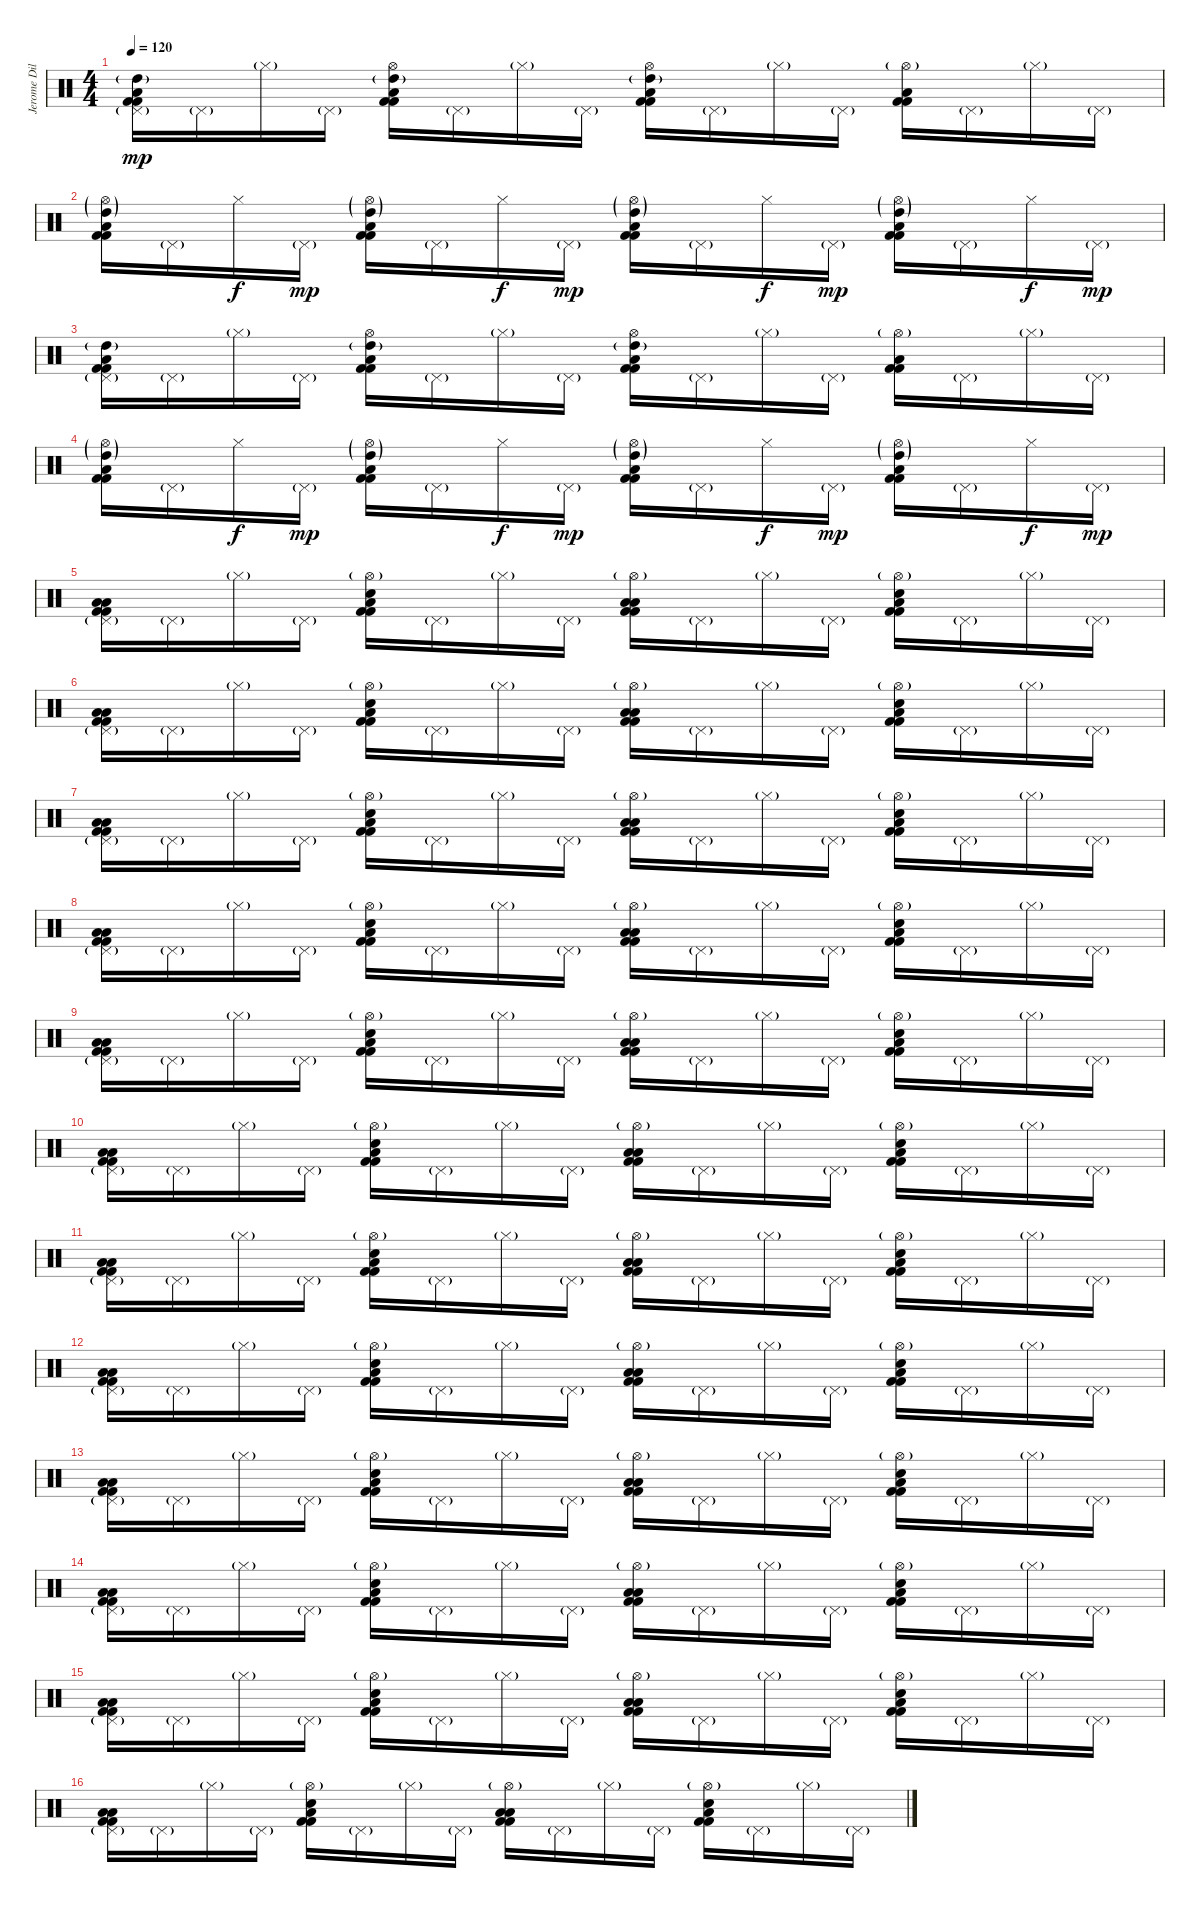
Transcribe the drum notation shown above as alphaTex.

\track ("Jerome Dillon" "Jerome Dil") {instrument percussion}
\staff {score}
\articulation defaults
\ts (4 4)
\tempo 120
\clef neutral
\ks c
("Pedal Hi-Hat (hit)"{g} "High Tom (hit)"{g} "Low Tom (hit)" "Kick (hit) 2" "Kick (hit) 2").16{dy mp} "Pedal Hi-Hat (hit)"{g}.16 "Hi-Hat (closed)"{g}.16 "Pedal Hi-Hat (hit)"{g}.16 ("Hi-Hat (open)" "High Tom (hit)"{g} "Low Tom (hit)" "Kick (hit) 2" "Kick (hit) 2").16 "Pedal Hi-Hat (hit)"{g}.16 "Hi-Hat (closed)"{g}.16 "Pedal Hi-Hat (hit)"{g}.16 ("Hi-Hat (open)" "High Tom (hit)"{g} "Low Tom (hit)" "Kick (hit) 2" "Kick (hit) 2").16 "Pedal Hi-Hat (hit)"{g}.16 "Hi-Hat (closed)"{g}.16 "Pedal Hi-Hat (hit)"{g}.16 ("Hi-Hat (open)"{g} "Low Tom (hit)" "Kick (hit) 2" "Kick (hit) 2").16 "Pedal Hi-Hat (hit)"{g}.16 "Hi-Hat (closed)"{g}.16 "Pedal Hi-Hat (hit)"{g}.16 |
("Hi-Hat (open)"{g} "High Tom (hit)"{g} "Low Tom (hit)" "Kick (hit) 2" "Kick (hit) 2").16 "Pedal Hi-Hat (hit)"{g}.16 "Hi-Hat (closed)".16{dy f} "Pedal Hi-Hat (hit)"{g}.16{dy mp} ("Hi-Hat (open)"{g} "High Tom (hit)"{g} "Low Tom (hit)" "Kick (hit) 2" "Kick (hit) 2").16 "Pedal Hi-Hat (hit)"{g}.16 "Hi-Hat (closed)".16{dy f} "Pedal Hi-Hat (hit)"{g}.16{dy mp} ("Hi-Hat (open)"{g} "High Tom (hit)"{g} "Low Tom (hit)" "Kick (hit) 2" "Kick (hit) 2").16 "Pedal Hi-Hat (hit)"{g}.16 "Hi-Hat (closed)".16{dy f} "Pedal Hi-Hat (hit)"{g}.16{dy mp} ("Hi-Hat (open)"{g} "High Tom (hit)"{g} "Low Tom (hit)" "Kick (hit) 2" "Kick (hit) 2").16 "Pedal Hi-Hat (hit)"{g}.16 "Hi-Hat (closed)".16{dy f} "Pedal Hi-Hat (hit)"{g}.16{dy mp} |
("Pedal Hi-Hat (hit)"{g} "High Tom (hit)"{g} "Low Tom (hit)" "Kick (hit) 2" "Kick (hit) 2").16 "Pedal Hi-Hat (hit)"{g}.16 "Hi-Hat (closed)"{g}.16 "Pedal Hi-Hat (hit)"{g}.16 ("Hi-Hat (open)" "High Tom (hit)"{g} "Low Tom (hit)" "Kick (hit) 2" "Kick (hit) 2").16 "Pedal Hi-Hat (hit)"{g}.16 "Hi-Hat (closed)"{g}.16 "Pedal Hi-Hat (hit)"{g}.16 ("Hi-Hat (open)" "High Tom (hit)"{g} "Low Tom (hit)" "Kick (hit) 2" "Kick (hit) 2").16 "Pedal Hi-Hat (hit)"{g}.16 "Hi-Hat (closed)"{g}.16 "Pedal Hi-Hat (hit)"{g}.16 ("Hi-Hat (open)"{g} "Low Tom (hit)" "Kick (hit) 2" "Kick (hit) 2").16 "Pedal Hi-Hat (hit)"{g}.16 "Hi-Hat (closed)"{g}.16 "Pedal Hi-Hat (hit)"{g}.16 |
("Hi-Hat (open)"{g} "High Tom (hit)"{g} "Low Tom (hit)" "Kick (hit) 2" "Kick (hit) 2").16 "Pedal Hi-Hat (hit)"{g}.16 "Hi-Hat (closed)".16{dy f} "Pedal Hi-Hat (hit)"{g}.16{dy mp} ("Hi-Hat (open)"{g} "High Tom (hit)"{g} "Low Tom (hit)" "Kick (hit) 2" "Kick (hit) 2").16 "Pedal Hi-Hat (hit)"{g}.16 "Hi-Hat (closed)".16{dy f} "Pedal Hi-Hat (hit)"{g}.16{dy mp} ("Hi-Hat (open)"{g} "High Tom (hit)"{g} "Low Tom (hit)" "Kick (hit) 2" "Kick (hit) 2").16 "Pedal Hi-Hat (hit)"{g}.16 "Hi-Hat (closed)".16{dy f} "Pedal Hi-Hat (hit)"{g}.16{dy mp} ("Hi-Hat (open)"{g} "High Tom (hit)"{g} "Low Tom (hit)" "Kick (hit) 2" "Kick (hit) 2").16 "Pedal Hi-Hat (hit)"{g}.16 "Hi-Hat (closed)".16{dy f} "Pedal Hi-Hat (hit)"{g}.16{dy mp} |
("Pedal Hi-Hat (hit)"{g} "Low Floor Tom (hit)" "Low Tom (hit)" "Kick (hit) 2" "Kick (hit) 2").16 "Pedal Hi-Hat (hit)"{g}.16 "Hi-Hat (closed)"{g}.16 "Pedal Hi-Hat (hit)"{g}.16 ("Hi-Hat (open)"{g} "Snare (hit) 2" "Low Tom (hit)" "Kick (hit) 2" "Kick (hit) 2").16 "Pedal Hi-Hat (hit)"{g}.16 "Hi-Hat (closed)"{g}.16 "Pedal Hi-Hat (hit)"{g}.16 ("Hi-Hat (open)"{g} "Low Floor Tom (hit)" "Low Tom (hit)" "Kick (hit) 2" "Kick (hit) 2").16 "Pedal Hi-Hat (hit)"{g}.16 "Hi-Hat (closed)"{g}.16 "Pedal Hi-Hat (hit)"{g}.16 ("Hi-Hat (open)"{g} "Snare (hit) 2" "Low Tom (hit)" "Kick (hit) 2" "Kick (hit) 2").16 "Pedal Hi-Hat (hit)"{g}.16 "Hi-Hat (closed)"{g}.16 "Pedal Hi-Hat (hit)"{g}.16 |
("Pedal Hi-Hat (hit)"{g} "Low Floor Tom (hit)" "Low Tom (hit)" "Kick (hit) 2" "Kick (hit) 2").16 "Pedal Hi-Hat (hit)"{g}.16 "Hi-Hat (closed)"{g}.16 "Pedal Hi-Hat (hit)"{g}.16 ("Hi-Hat (open)"{g} "Snare (hit) 2" "Low Tom (hit)" "Kick (hit) 2" "Kick (hit) 2").16 "Pedal Hi-Hat (hit)"{g}.16 "Hi-Hat (closed)"{g}.16 "Pedal Hi-Hat (hit)"{g}.16 ("Hi-Hat (open)"{g} "Low Floor Tom (hit)" "Low Tom (hit)" "Kick (hit) 2" "Kick (hit) 2").16 "Pedal Hi-Hat (hit)"{g}.16 "Hi-Hat (closed)"{g}.16 "Pedal Hi-Hat (hit)"{g}.16 ("Hi-Hat (open)"{g} "Snare (hit) 2" "Low Tom (hit)" "Kick (hit) 2" "Kick (hit) 2").16 "Pedal Hi-Hat (hit)"{g}.16 "Hi-Hat (closed)"{g}.16 "Pedal Hi-Hat (hit)"{g}.16 |
("Pedal Hi-Hat (hit)"{g} "Low Floor Tom (hit)" "Low Tom (hit)" "Kick (hit) 2" "Kick (hit) 2").16 "Pedal Hi-Hat (hit)"{g}.16 "Hi-Hat (closed)"{g}.16 "Pedal Hi-Hat (hit)"{g}.16 ("Hi-Hat (open)"{g} "Snare (hit) 2" "Low Tom (hit)" "Kick (hit) 2" "Kick (hit) 2").16 "Pedal Hi-Hat (hit)"{g}.16 "Hi-Hat (closed)"{g}.16 "Pedal Hi-Hat (hit)"{g}.16 ("Hi-Hat (open)"{g} "Low Floor Tom (hit)" "Low Tom (hit)" "Kick (hit) 2" "Kick (hit) 2").16 "Pedal Hi-Hat (hit)"{g}.16 "Hi-Hat (closed)"{g}.16 "Pedal Hi-Hat (hit)"{g}.16 ("Hi-Hat (open)"{g} "Snare (hit) 2" "Low Tom (hit)" "Kick (hit) 2" "Kick (hit) 2").16 "Pedal Hi-Hat (hit)"{g}.16 "Hi-Hat (closed)"{g}.16 "Pedal Hi-Hat (hit)"{g}.16 |
("Pedal Hi-Hat (hit)"{g} "Low Floor Tom (hit)" "Low Tom (hit)" "Kick (hit) 2" "Kick (hit) 2").16 "Pedal Hi-Hat (hit)"{g}.16 "Hi-Hat (closed)"{g}.16 "Pedal Hi-Hat (hit)"{g}.16 ("Hi-Hat (open)"{g} "Snare (hit) 2" "Low Tom (hit)" "Kick (hit) 2" "Kick (hit) 2").16 "Pedal Hi-Hat (hit)"{g}.16 "Hi-Hat (closed)"{g}.16 "Pedal Hi-Hat (hit)"{g}.16 ("Hi-Hat (open)"{g} "Low Floor Tom (hit)" "Low Tom (hit)" "Kick (hit) 2" "Kick (hit) 2").16 "Pedal Hi-Hat (hit)"{g}.16 "Hi-Hat (closed)"{g}.16 "Pedal Hi-Hat (hit)"{g}.16 ("Hi-Hat (open)"{g} "Snare (hit) 2" "Low Tom (hit)" "Kick (hit) 2" "Kick (hit) 2").16 "Pedal Hi-Hat (hit)"{g}.16 "Hi-Hat (closed)"{g}.16 "Pedal Hi-Hat (hit)"{g}.16 |
("Pedal Hi-Hat (hit)"{g} "Low Floor Tom (hit)" "Low Tom (hit)" "Kick (hit) 2" "Kick (hit) 2").16 "Pedal Hi-Hat (hit)"{g}.16 "Hi-Hat (closed)"{g}.16 "Pedal Hi-Hat (hit)"{g}.16 ("Hi-Hat (open)"{g} "Snare (hit) 2" "Low Tom (hit)" "Kick (hit) 2" "Kick (hit) 2").16 "Pedal Hi-Hat (hit)"{g}.16 "Hi-Hat (closed)"{g}.16 "Pedal Hi-Hat (hit)"{g}.16 ("Hi-Hat (open)"{g} "Low Floor Tom (hit)" "Low Tom (hit)" "Kick (hit) 2" "Kick (hit) 2").16 "Pedal Hi-Hat (hit)"{g}.16 "Hi-Hat (closed)"{g}.16 "Pedal Hi-Hat (hit)"{g}.16 ("Hi-Hat (open)"{g} "Snare (hit) 2" "Low Tom (hit)" "Kick (hit) 2" "Kick (hit) 2").16 "Pedal Hi-Hat (hit)"{g}.16 "Hi-Hat (closed)"{g}.16 "Pedal Hi-Hat (hit)"{g}.16 |
("Pedal Hi-Hat (hit)"{g} "Low Floor Tom (hit)" "Low Tom (hit)" "Kick (hit) 2" "Kick (hit) 2").16 "Pedal Hi-Hat (hit)"{g}.16 "Hi-Hat (closed)"{g}.16 "Pedal Hi-Hat (hit)"{g}.16 ("Hi-Hat (open)"{g} "Snare (hit) 2" "Low Tom (hit)" "Kick (hit) 2" "Kick (hit) 2").16 "Pedal Hi-Hat (hit)"{g}.16 "Hi-Hat (closed)"{g}.16 "Pedal Hi-Hat (hit)"{g}.16 ("Hi-Hat (open)"{g} "Low Floor Tom (hit)" "Low Tom (hit)" "Kick (hit) 2" "Kick (hit) 2").16 "Pedal Hi-Hat (hit)"{g}.16 "Hi-Hat (closed)"{g}.16 "Pedal Hi-Hat (hit)"{g}.16 ("Hi-Hat (open)"{g} "Snare (hit) 2" "Low Tom (hit)" "Kick (hit) 2" "Kick (hit) 2").16 "Pedal Hi-Hat (hit)"{g}.16 "Hi-Hat (closed)"{g}.16 "Pedal Hi-Hat (hit)"{g}.16 |
("Pedal Hi-Hat (hit)"{g} "Low Floor Tom (hit)" "Low Tom (hit)" "Kick (hit) 2" "Kick (hit) 2").16 "Pedal Hi-Hat (hit)"{g}.16 "Hi-Hat (closed)"{g}.16 "Pedal Hi-Hat (hit)"{g}.16 ("Hi-Hat (open)"{g} "Snare (hit) 2" "Low Tom (hit)" "Kick (hit) 2" "Kick (hit) 2").16 "Pedal Hi-Hat (hit)"{g}.16 "Hi-Hat (closed)"{g}.16 "Pedal Hi-Hat (hit)"{g}.16 ("Hi-Hat (open)"{g} "Low Floor Tom (hit)" "Low Tom (hit)" "Kick (hit) 2" "Kick (hit) 2").16 "Pedal Hi-Hat (hit)"{g}.16 "Hi-Hat (closed)"{g}.16 "Pedal Hi-Hat (hit)"{g}.16 ("Hi-Hat (open)"{g} "Snare (hit) 2" "Low Tom (hit)" "Kick (hit) 2" "Kick (hit) 2").16 "Pedal Hi-Hat (hit)"{g}.16 "Hi-Hat (closed)"{g}.16 "Pedal Hi-Hat (hit)"{g}.16 |
("Pedal Hi-Hat (hit)"{g} "Low Floor Tom (hit)" "Low Tom (hit)" "Kick (hit) 2" "Kick (hit) 2").16 "Pedal Hi-Hat (hit)"{g}.16 "Hi-Hat (closed)"{g}.16 "Pedal Hi-Hat (hit)"{g}.16 ("Hi-Hat (open)"{g} "Snare (hit) 2" "Low Tom (hit)" "Kick (hit) 2" "Kick (hit) 2").16 "Pedal Hi-Hat (hit)"{g}.16 "Hi-Hat (closed)"{g}.16 "Pedal Hi-Hat (hit)"{g}.16 ("Hi-Hat (open)"{g} "Low Floor Tom (hit)" "Low Tom (hit)" "Kick (hit) 2" "Kick (hit) 2").16 "Pedal Hi-Hat (hit)"{g}.16 "Hi-Hat (closed)"{g}.16 "Pedal Hi-Hat (hit)"{g}.16 ("Hi-Hat (open)"{g} "Snare (hit) 2" "Low Tom (hit)" "Kick (hit) 2" "Kick (hit) 2").16 "Pedal Hi-Hat (hit)"{g}.16 "Hi-Hat (closed)"{g}.16 "Pedal Hi-Hat (hit)"{g}.16 |
("Pedal Hi-Hat (hit)"{g} "Low Floor Tom (hit)" "Low Tom (hit)" "Kick (hit) 2" "Kick (hit) 2").16 "Pedal Hi-Hat (hit)"{g}.16 "Hi-Hat (closed)"{g}.16 "Pedal Hi-Hat (hit)"{g}.16 ("Hi-Hat (open)"{g} "Snare (hit) 2" "Low Tom (hit)" "Kick (hit) 2" "Kick (hit) 2").16 "Pedal Hi-Hat (hit)"{g}.16 "Hi-Hat (closed)"{g}.16 "Pedal Hi-Hat (hit)"{g}.16 ("Hi-Hat (open)"{g} "Low Floor Tom (hit)" "Low Tom (hit)" "Kick (hit) 2" "Kick (hit) 2").16 "Pedal Hi-Hat (hit)"{g}.16 "Hi-Hat (closed)"{g}.16 "Pedal Hi-Hat (hit)"{g}.16 ("Hi-Hat (open)"{g} "Snare (hit) 2" "Low Tom (hit)" "Kick (hit) 2" "Kick (hit) 2").16 "Pedal Hi-Hat (hit)"{g}.16 "Hi-Hat (closed)"{g}.16 "Pedal Hi-Hat (hit)"{g}.16 |
("Pedal Hi-Hat (hit)"{g} "Low Floor Tom (hit)" "Low Tom (hit)" "Kick (hit) 2" "Kick (hit) 2").16 "Pedal Hi-Hat (hit)"{g}.16 "Hi-Hat (closed)"{g}.16 "Pedal Hi-Hat (hit)"{g}.16 ("Hi-Hat (open)"{g} "Snare (hit) 2" "Low Tom (hit)" "Kick (hit) 2" "Kick (hit) 2").16 "Pedal Hi-Hat (hit)"{g}.16 "Hi-Hat (closed)"{g}.16 "Pedal Hi-Hat (hit)"{g}.16 ("Hi-Hat (open)"{g} "Low Floor Tom (hit)" "Low Tom (hit)" "Kick (hit) 2" "Kick (hit) 2").16 "Pedal Hi-Hat (hit)"{g}.16 "Hi-Hat (closed)"{g}.16 "Pedal Hi-Hat (hit)"{g}.16 ("Hi-Hat (open)"{g} "Snare (hit) 2" "Low Tom (hit)" "Kick (hit) 2" "Kick (hit) 2").16 "Pedal Hi-Hat (hit)"{g}.16 "Hi-Hat (closed)"{g}.16 "Pedal Hi-Hat (hit)"{g}.16 |
("Pedal Hi-Hat (hit)"{g} "Low Floor Tom (hit)" "Low Tom (hit)" "Kick (hit) 2" "Kick (hit) 2").16 "Pedal Hi-Hat (hit)"{g}.16 "Hi-Hat (closed)"{g}.16 "Pedal Hi-Hat (hit)"{g}.16 ("Hi-Hat (open)"{g} "Snare (hit) 2" "Low Tom (hit)" "Kick (hit) 2" "Kick (hit) 2").16 "Pedal Hi-Hat (hit)"{g}.16 "Hi-Hat (closed)"{g}.16 "Pedal Hi-Hat (hit)"{g}.16 ("Hi-Hat (open)"{g} "Low Floor Tom (hit)" "Low Tom (hit)" "Kick (hit) 2" "Kick (hit) 2").16 "Pedal Hi-Hat (hit)"{g}.16 "Hi-Hat (closed)"{g}.16 "Pedal Hi-Hat (hit)"{g}.16 ("Hi-Hat (open)"{g} "Snare (hit) 2" "Low Tom (hit)" "Kick (hit) 2" "Kick (hit) 2").16 "Pedal Hi-Hat (hit)"{g}.16 "Hi-Hat (closed)"{g}.16 "Pedal Hi-Hat (hit)"{g}.16 |
("Pedal Hi-Hat (hit)"{g} "Low Floor Tom (hit)" "Low Tom (hit)" "Kick (hit) 2" "Kick (hit) 2").16 "Pedal Hi-Hat (hit)"{g}.16 "Hi-Hat (closed)"{g}.16 "Pedal Hi-Hat (hit)"{g}.16 ("Hi-Hat (open)"{g} "Snare (hit) 2" "Low Tom (hit)" "Kick (hit) 2" "Kick (hit) 2").16 "Pedal Hi-Hat (hit)"{g}.16 "Hi-Hat (closed)"{g}.16 "Pedal Hi-Hat (hit)"{g}.16 ("Hi-Hat (open)"{g} "Low Floor Tom (hit)" "Low Tom (hit)" "Kick (hit) 2" "Kick (hit) 2").16 "Pedal Hi-Hat (hit)"{g}.16 "Hi-Hat (closed)"{g}.16 "Pedal Hi-Hat (hit)"{g}.16 ("Hi-Hat (open)"{g} "Snare (hit) 2" "Low Tom (hit)" "Kick (hit) 2" "Kick (hit) 2").16 "Pedal Hi-Hat (hit)"{g}.16 "Hi-Hat (closed)"{g}.16 "Pedal Hi-Hat (hit)"{g}.16
